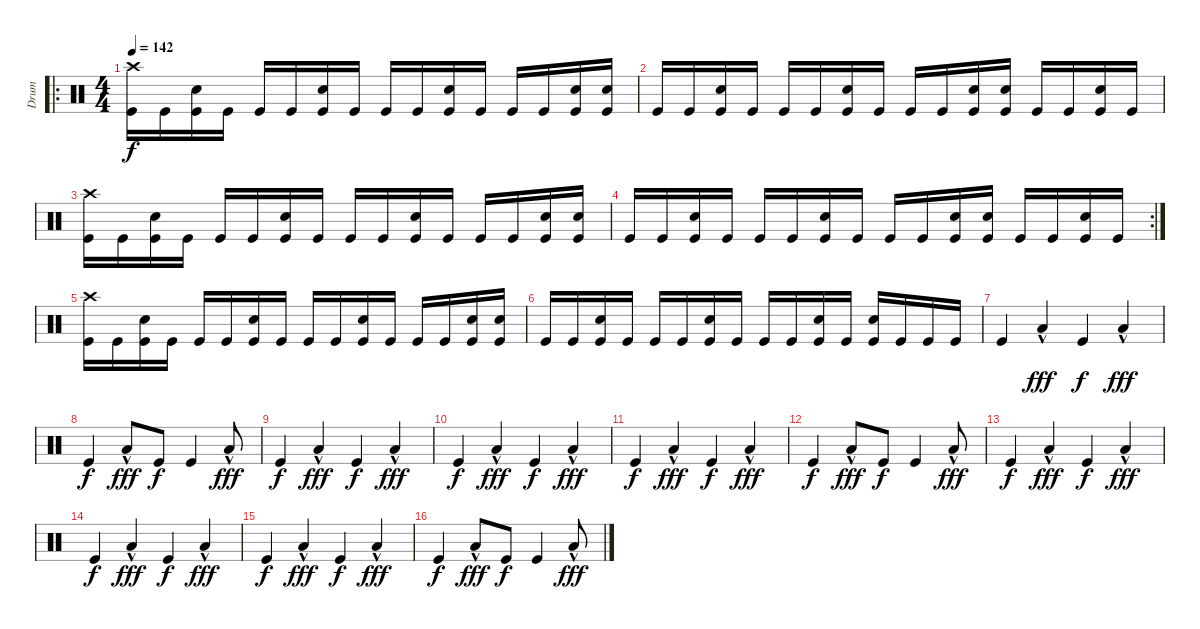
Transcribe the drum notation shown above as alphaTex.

\track ("Drum" "Drum") {instrument percussion}
\staff {score}
\articulation defaults
\ro
\ts (4 4)
\tempo 142
\clef neutral
\ks c
("Kick (hit)" "Crash high (hit)").16{dy f} "Kick (hit)".16 ("Kick (hit)" "Snare (hit) 2").16 "Kick (hit)".16 "Kick (hit)".16 "Kick (hit)".16 ("Kick (hit)" "Snare (hit) 2").16 "Kick (hit)".16 "Kick (hit)".16 "Kick (hit)".16 ("Kick (hit)" "Snare (hit) 2").16 "Kick (hit)".16 "Kick (hit)".16 "Kick (hit)".16 ("Kick (hit)" "Snare (hit) 2").16 ("Kick (hit)" "Snare (hit) 2").16 |
"Kick (hit)".16 "Kick (hit)".16 ("Kick (hit)" "Snare (hit) 2").16 "Kick (hit)".16 "Kick (hit)".16 "Kick (hit)".16 ("Kick (hit)" "Snare (hit) 2").16 "Kick (hit)".16 "Kick (hit)".16 "Kick (hit)".16 ("Kick (hit)" "Snare (hit) 2").16 ("Kick (hit)" "Snare (hit) 2").16 "Kick (hit)".16 "Kick (hit)".16 ("Kick (hit)" "Snare (hit) 2").16 "Kick (hit)".16 |
("Kick (hit)" "Crash high (hit)").16 "Kick (hit)".16 ("Kick (hit)" "Snare (hit) 2").16 "Kick (hit)".16 "Kick (hit)".16 "Kick (hit)".16 ("Kick (hit)" "Snare (hit) 2").16 "Kick (hit)".16 "Kick (hit)".16 "Kick (hit)".16 ("Kick (hit)" "Snare (hit) 2").16 "Kick (hit)".16 "Kick (hit)".16 "Kick (hit)".16 ("Kick (hit)" "Snare (hit) 2").16 ("Kick (hit)" "Snare (hit) 2").16 |
\rc 2 "Kick (hit)".16 "Kick (hit)".16
("Kick (hit)" "Snare (hit) 2").16 "Kick (hit)".16 "Kick (hit)".16 "Kick (hit)".16 ("Kick (hit)" "Snare (hit) 2").16 "Kick (hit)".16 "Kick (hit)".16 "Kick (hit)".16 ("Kick (hit)" "Snare (hit) 2").16 ("Kick (hit)" "Snare (hit) 2").16 "Kick (hit)".16 "Kick (hit)".16 ("Kick (hit)" "Snare (hit) 2").16 "Kick (hit)".16 |
("Kick (hit)" "Crash high (hit)").16 "Kick (hit)".16 ("Kick (hit)" "Snare (hit) 2").16 "Kick (hit)".16 "Kick (hit)".16 "Kick (hit)".16 ("Kick (hit)" "Snare (hit) 2").16 "Kick (hit)".16 "Kick (hit)".16 "Kick (hit)".16 ("Kick (hit)" "Snare (hit) 2").16 "Kick (hit)".16 "Kick (hit)".16 "Kick (hit)".16 ("Kick (hit)" "Snare (hit) 2").16 ("Kick (hit)" "Snare (hit) 2").16 |
"Kick (hit)".16 "Kick (hit)".16 ("Kick (hit)" "Snare (hit) 2").16 "Kick (hit)".16 "Kick (hit)".16 "Kick (hit)".16 ("Kick (hit)" "Snare (hit) 2").16 "Kick (hit)".16 "Kick (hit)".16 "Kick (hit)".16 ("Kick (hit)" "Snare (hit) 2").16 "Kick (hit)".16 ("Kick (hit)" "Snare (hit) 2").16 "Kick (hit)".16 "Kick (hit)".16 "Kick (hit)".16 |
"Kick (hit)".4{volume 16} "Low Floor Tom (hit)"{hac}.4{dy fff} "Kick (hit)".4{dy f} "Low Floor Tom (hit)"{hac}.4{dy fff} |
"Kick (hit)".4{dy f} "Low Floor Tom (hit)"{hac}.8{dy fff} "Kick (hit)".8{dy f} "Kick (hit)".4 "Low Floor Tom (hit)"{hac}.8{dy fff} |
"Kick (hit)".4{dy f} "Low Floor Tom (hit)"{hac}.4{dy fff} "Kick (hit)".4{dy f} "Low Floor Tom (hit)"{hac}.4{dy fff} |
"Kick (hit)".4{dy f} "Low Floor Tom (hit)"{hac}.4{dy fff} "Kick (hit)".4{dy f} "Low Floor Tom (hit)"{hac}.4{dy fff} |
"Kick (hit)".4{dy f} "Low Floor Tom (hit)"{hac}.4{dy fff} "Kick (hit)".4{dy f} "Low Floor Tom (hit)"{hac}.4{dy fff} |
"Kick (hit)".4{dy f} "Low Floor Tom (hit)"{hac}.8{dy fff} "Kick (hit)".8{dy f} "Kick (hit)".4 "Low Floor Tom (hit)"{hac}.8{dy fff} |
"Kick (hit)".4{dy f} "Low Floor Tom (hit)"{hac}.4{dy fff} "Kick (hit)".4{dy f} "Low Floor Tom (hit)"{hac}.4{dy fff} |
"Kick (hit)".4{dy f} "Low Floor Tom (hit)"{hac}.4{dy fff} "Kick (hit)".4{dy f} "Low Floor Tom (hit)"{hac}.4{dy fff} |
"Kick (hit)".4{dy f} "Low Floor Tom (hit)"{hac}.4{dy fff} "Kick (hit)".4{dy f} "Low Floor Tom (hit)"{hac}.4{dy fff} |
"Kick (hit)".4{dy f} "Low Floor Tom (hit)"{hac}.8{dy fff} "Kick (hit)".8{dy f} "Kick (hit)".4 "Low Floor Tom (hit)"{hac}.8{dy fff}
